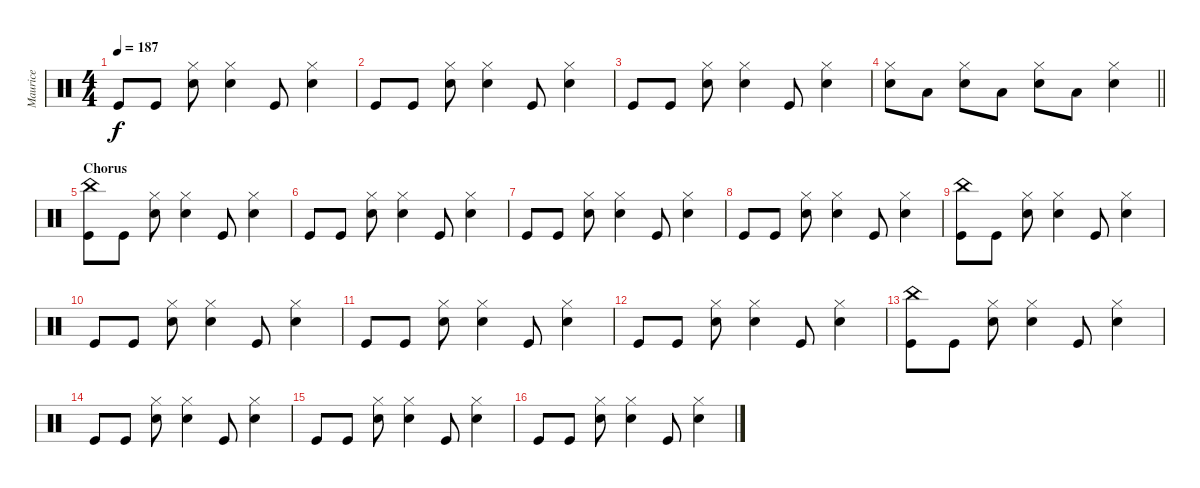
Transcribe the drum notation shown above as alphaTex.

\track ("Maurice" "Maurice") {instrument percussion}
\staff {score}
\articulation defaults
\ts (4 4)
\tempo 187
\clef neutral
\ks c "Kick (hit)".8{dy f} "Kick (hit)".8
("Hi-Hat (closed)" "Snare (hit) 2").8 ("Hi-Hat (closed)" "Snare (hit) 2").4 "Kick (hit)".8 ("Hi-Hat (closed)" "Snare (hit) 2").4 |
"Kick (hit)".8 "Kick (hit)".8 ("Hi-Hat (closed)" "Snare (hit) 2").8 ("Hi-Hat (closed)" "Snare (hit) 2").4 "Kick (hit)".8 ("Hi-Hat (closed)" "Snare (hit) 2").4 |
"Kick (hit)".8 "Kick (hit)".8 ("Hi-Hat (closed)" "Snare (hit) 2").8 ("Hi-Hat (closed)" "Snare (hit) 2").4 "Kick (hit)".8 ("Hi-Hat (closed)" "Snare (hit) 2").4 |
\barLineRight lightlight
("Hi-Hat (closed)" "Snare (hit) 2").8 "Low Tom (hit)".8 ("Hi-Hat (closed)" "Snare (hit) 2").8 "Low Tom (hit)".8 ("Hi-Hat (closed)" "Snare (hit) 2").8 "Low Tom (hit)".8 ("Hi-Hat (closed)" "Snare (hit) 2").4 |
\section ("" "Chorus")
("China (hit)" "Kick (hit)").8 "Kick (hit)".8 ("Hi-Hat (closed)" "Snare (hit) 2").8 ("Hi-Hat (closed)" "Snare (hit) 2").4 "Kick (hit)".8 ("Hi-Hat (closed)" "Snare (hit) 2").4 |
"Kick (hit)".8 "Kick (hit)".8 ("Hi-Hat (closed)" "Snare (hit) 2").8 ("Hi-Hat (closed)" "Snare (hit) 2").4 "Kick (hit)".8 ("Hi-Hat (closed)" "Snare (hit) 2").4 |
"Kick (hit)".8 "Kick (hit)".8 ("Hi-Hat (closed)" "Snare (hit) 2").8 ("Hi-Hat (closed)" "Snare (hit) 2").4 "Kick (hit)".8 ("Hi-Hat (closed)" "Snare (hit) 2").4 |
"Kick (hit)".8 "Kick (hit)".8 ("Hi-Hat (closed)" "Snare (hit) 2").8 ("Hi-Hat (closed)" "Snare (hit) 2").4 "Kick (hit)".8 ("Hi-Hat (closed)" "Snare (hit) 2").4 |
("China (hit)" "Kick (hit)").8 "Kick (hit)".8 ("Hi-Hat (closed)" "Snare (hit) 2").8 ("Hi-Hat (closed)" "Snare (hit) 2").4 "Kick (hit)".8 ("Hi-Hat (closed)" "Snare (hit) 2").4 |
"Kick (hit)".8 "Kick (hit)".8 ("Hi-Hat (closed)" "Snare (hit) 2").8 ("Hi-Hat (closed)" "Snare (hit) 2").4 "Kick (hit)".8 ("Hi-Hat (closed)" "Snare (hit) 2").4 |
"Kick (hit)".8 "Kick (hit)".8 ("Hi-Hat (closed)" "Snare (hit) 2").8 ("Hi-Hat (closed)" "Snare (hit) 2").4 "Kick (hit)".8 ("Hi-Hat (closed)" "Snare (hit) 2").4 |
"Kick (hit)".8 "Kick (hit)".8 ("Hi-Hat (closed)" "Snare (hit) 2").8 ("Hi-Hat (closed)" "Snare (hit) 2").4 "Kick (hit)".8 ("Hi-Hat (closed)" "Snare (hit) 2").4 |
("China (hit)" "Kick (hit)").8 "Kick (hit)".8 ("Hi-Hat (closed)" "Snare (hit) 2").8 ("Hi-Hat (closed)" "Snare (hit) 2").4 "Kick (hit)".8 ("Hi-Hat (closed)" "Snare (hit) 2").4 |
"Kick (hit)".8 "Kick (hit)".8 ("Hi-Hat (closed)" "Snare (hit) 2").8 ("Hi-Hat (closed)" "Snare (hit) 2").4 "Kick (hit)".8 ("Hi-Hat (closed)" "Snare (hit) 2").4 |
"Kick (hit)".8 "Kick (hit)".8 ("Hi-Hat (closed)" "Snare (hit) 2").8 ("Hi-Hat (closed)" "Snare (hit) 2").4 "Kick (hit)".8 ("Hi-Hat (closed)" "Snare (hit) 2").4 |
"Kick (hit)".8 "Kick (hit)".8 ("Hi-Hat (closed)" "Snare (hit) 2").8 ("Hi-Hat (closed)" "Snare (hit) 2").4 "Kick (hit)".8 ("Hi-Hat (closed)" "Snare (hit) 2").4
